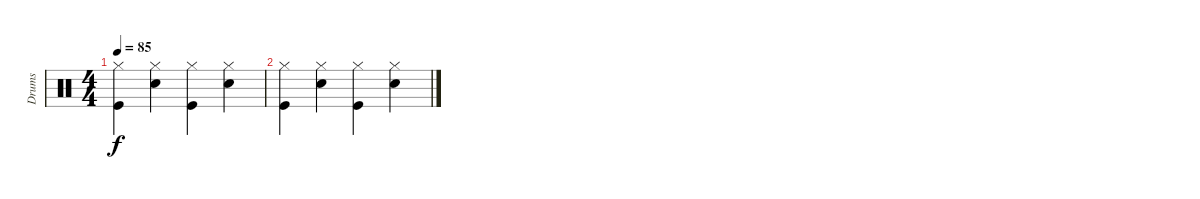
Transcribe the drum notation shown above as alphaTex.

\track ("Drums" "Drums") {instrument percussion}
\staff {score}
\articulation defaults
\ts (4 4)
\tempo 85
\clef neutral
\ks c
("Kick (hit)" "Hi-Hat (closed)").4{dy f} ("Snare (hit) 2" "Hi-Hat (closed)").4 ("Kick (hit)" "Hi-Hat (closed)").4 ("Snare (hit) 2" "Hi-Hat (closed)").4 |
("Kick (hit)" "Hi-Hat (closed)").4 ("Snare (hit) 2" "Hi-Hat (closed)").4 ("Kick (hit)" "Hi-Hat (closed)").4 ("Snare (hit) 2" "Hi-Hat (closed)").4
